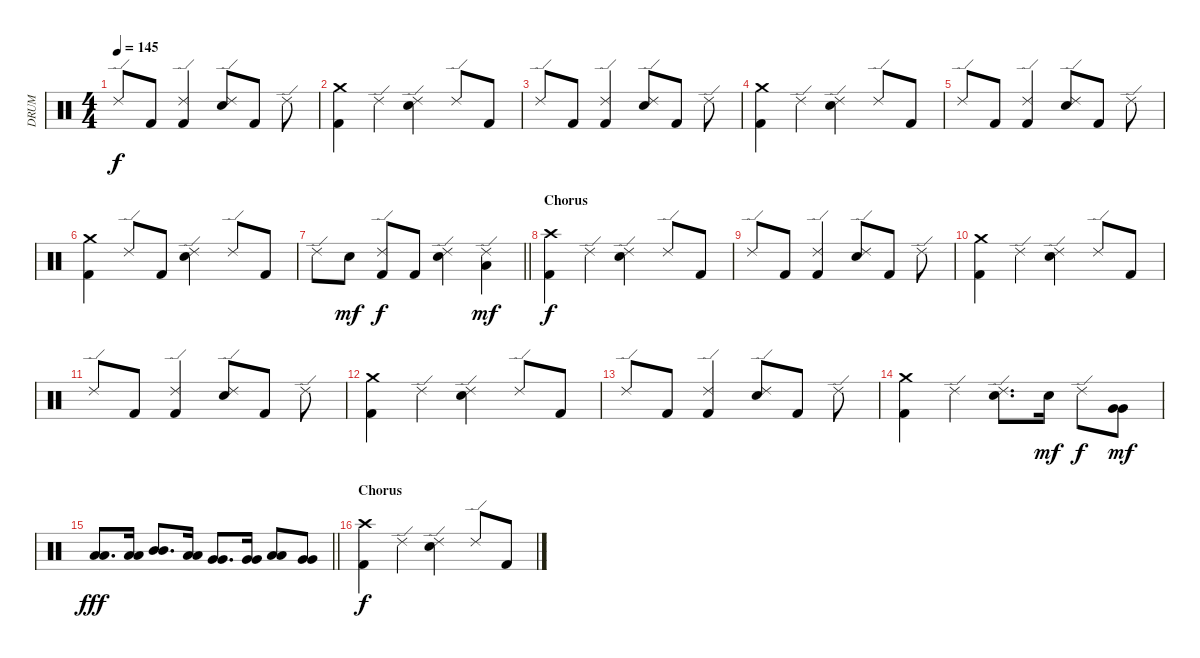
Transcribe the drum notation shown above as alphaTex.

\track ("DRUM" "DRUM") {instrument percussion}
\staff {score}
\articulation defaults
\ts (4 4)
\tempo 145
\clef neutral
\ks c "Ride (edge) 2".8{dy f} "Kick (hit) 2".8
("Ride (edge) 2" "Kick (hit) 2").4 ("Ride (edge) 2" "Electric Snare (hit)").8 "Kick (hit) 2".8 "Ride (edge) 2".8 |
("Crash medium (hit)" "Kick (hit) 2").4 "Ride (edge) 2".4 ("Ride (edge) 2" "Electric Snare (hit)").4 "Ride (edge) 2".8 "Kick (hit) 2".8 |
"Ride (edge) 2".8 "Kick (hit) 2".8 ("Ride (edge) 2" "Kick (hit) 2").4 ("Ride (edge) 2" "Electric Snare (hit)").8 "Kick (hit) 2".8 "Ride (edge) 2".8 |
("Crash medium (hit)" "Kick (hit) 2").4 "Ride (edge) 2".4 ("Ride (edge) 2" "Electric Snare (hit)").4 "Ride (edge) 2".8 "Kick (hit) 2".8 |
"Ride (edge) 2".8 "Kick (hit) 2".8 ("Ride (edge) 2" "Kick (hit) 2").4 ("Ride (edge) 2" "Electric Snare (hit)").8 "Kick (hit) 2".8 "Ride (edge) 2".8 |
("Crash medium (hit)" "Kick (hit) 2").4 "Ride (edge) 2".8 "Kick (hit) 2".8 ("Ride (edge) 2" "Electric Snare (hit)").4 "Ride (edge) 2".8 "Kick (hit) 2".8 |
\barLineRight lightlight "Ride (edge) 2".8 "Electric Snare (hit)".8{dy mf}
("Ride (edge) 2" "Kick (hit) 2").8{dy f} "Kick (hit) 2".8 ("Ride (edge) 2" "Electric Snare (hit)").4 ("Ride (edge) 2" "Low Tom (hit)").4{dy mf} |
\section ("" "Chorus")
("Crash high (hit)" "Kick (hit) 2").4{dy f} "Ride (edge) 2".4 ("Ride (edge) 2" "Electric Snare (hit)").4 "Ride (edge) 2".8 "Kick (hit) 2".8 |
"Ride (edge) 2".8 "Kick (hit) 2".8 ("Ride (edge) 2" "Kick (hit) 2").4 ("Ride (edge) 2" "Electric Snare (hit)").8 "Kick (hit) 2".8 "Ride (edge) 2".8 |
("Crash medium (hit)" "Kick (hit) 2").4 "Ride (edge) 2".4 ("Ride (edge) 2" "Electric Snare (hit)").4 "Ride (edge) 2".8 "Kick (hit) 2".8 |
"Ride (edge) 2".8 "Kick (hit) 2".8 ("Ride (edge) 2" "Kick (hit) 2").4 ("Ride (edge) 2" "Electric Snare (hit)").8 "Kick (hit) 2".8 "Ride (edge) 2".8 |
("Crash medium (hit)" "Kick (hit) 2").4 "Ride (edge) 2".4 ("Ride (edge) 2" "Electric Snare (hit)").4 "Ride (edge) 2".8 "Kick (hit) 2".8 |
"Ride (edge) 2".8 "Kick (hit) 2".8 ("Ride (edge) 2" "Kick (hit) 2").4 ("Ride (edge) 2" "Electric Snare (hit)").8 "Kick (hit) 2".8 "Ride (edge) 2".8 |
("Crash medium (hit)" "Kick (hit) 2").4 "Ride (edge) 2".4 ("Ride (edge) 2" "Electric Snare (hit)").8{d} "Electric Snare (hit)".16{dy mf} "Ride (edge) 2".8{dy f} ("Very Low Tom (hit)" "Very Low Tom (hit)").8{dy mf} |
\barLineRight lightlight
("Low Tom (hit)" "Low Tom (hit)").8{d dy fff} ("Low Tom (hit)" "Low Tom (hit)").16 ("Mid Tom (hit)" "Mid Tom (hit)").8{d} ("Low Tom (hit)" "Low Tom (hit)").16 ("Very Low Tom (hit)" "Very Low Tom (hit)").8{d} ("Very Low Tom (hit)" "Very Low Tom (hit)").16 ("Low Floor Tom (hit)" "Low Floor Tom (hit)").8 ("Very Low Tom (hit)" "Very Low Tom (hit)").8 |
\section ("" "Chorus")
("Crash high (hit)" "Kick (hit) 2").4{dy f} "Ride (edge) 2".4 ("Ride (edge) 2" "Electric Snare (hit)").4 "Ride (edge) 2".8 "Kick (hit) 2".8
